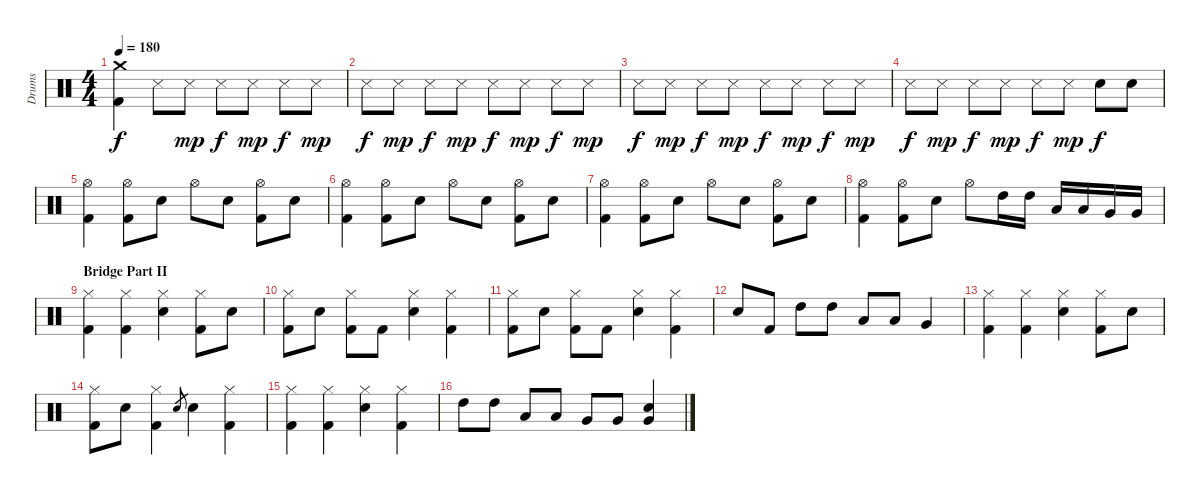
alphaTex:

\track ("Drums" "Drums") {instrument percussion}
\staff {score}
\articulation defaults
\ts (4 4)
\tempo 180
\clef neutral
\ks c
("Crash medium (hit)" "Kick (hit) 2").4{dy f} "Snare (side stick) 3".8 "Snare (side stick) 3".8{dy mp} "Snare (side stick) 3".8{dy f} "Snare (side stick) 3".8{dy mp} "Snare (side stick) 3".8{dy f} "Snare (side stick) 3".8{dy mp} |
"Snare (side stick) 3".8{dy f} "Snare (side stick) 3".8{dy mp} "Snare (side stick) 3".8{dy f} "Snare (side stick) 3".8{dy mp} "Snare (side stick) 3".8{dy f} "Snare (side stick) 3".8{dy mp} "Snare (side stick) 3".8{dy f} "Snare (side stick) 3".8{dy mp} |
"Snare (side stick) 3".8{dy f} "Snare (side stick) 3".8{dy mp} "Snare (side stick) 3".8{dy f} "Snare (side stick) 3".8{dy mp} "Snare (side stick) 3".8{dy f} "Snare (side stick) 3".8{dy mp} "Snare (side stick) 3".8{dy f} "Snare (side stick) 3".8{dy mp} |
"Snare (side stick) 3".8{dy f} "Snare (side stick) 3".8{dy mp} "Snare (side stick) 3".8{dy f} "Snare (side stick) 3".8{dy mp} "Snare (side stick) 3".8{dy f} "Snare (side stick) 3".8{dy mp} "Electric Snare (hit)".8{dy f} "Electric Snare (hit)".8 |
("Hi-Hat (open)" "Kick (hit) 2").4 ("Hi-Hat (open)" "Kick (hit) 2").8 "Electric Snare (hit)".8 "Hi-Hat (open)".8 "Electric Snare (hit)".8 ("Hi-Hat (open)" "Kick (hit) 2").8 "Electric Snare (hit)".8 |
("Hi-Hat (open)" "Kick (hit) 2").4 ("Hi-Hat (open)" "Kick (hit) 2").8 "Electric Snare (hit)".8 "Hi-Hat (open)".8 "Electric Snare (hit)".8 ("Hi-Hat (open)" "Kick (hit) 2").8 "Electric Snare (hit)".8 |
("Hi-Hat (open)" "Kick (hit) 2").4 ("Hi-Hat (open)" "Kick (hit) 2").8 "Electric Snare (hit)".8 "Hi-Hat (open)".8 "Electric Snare (hit)".8 ("Hi-Hat (open)" "Kick (hit) 2").8 "Electric Snare (hit)".8 |
("Hi-Hat (open)" "Kick (hit) 2").4 ("Hi-Hat (open)" "Kick (hit) 2").8 "Electric Snare (hit)".8 "Hi-Hat (open)".8 "High Tom (hit)".16 "High Tom (hit)".16 "Low Tom (hit)".16 "Low Tom (hit)".16 "Very Low Tom (hit)".16 "Very Low Tom (hit)".16 |
\section ("" "Bridge Part II")
("Hi-Hat (closed)" "Kick (hit) 2").4 ("Hi-Hat (closed)" "Kick (hit) 2").4 ("Hi-Hat (closed)" "Electric Snare (hit)").4 ("Hi-Hat (closed)" "Kick (hit) 2").8 "Electric Snare (hit)".8 |
("Hi-Hat (closed)" "Kick (hit) 2").8 "Electric Snare (hit)".8 ("Hi-Hat (closed)" "Kick (hit) 2").8 "Kick (hit) 2".8 ("Hi-Hat (closed)" "Electric Snare (hit)").4 ("Hi-Hat (closed)" "Kick (hit) 2").4 |
("Hi-Hat (closed)" "Kick (hit) 2").8 "Electric Snare (hit)".8 ("Hi-Hat (closed)" "Kick (hit) 2").8 "Kick (hit) 2".8 ("Hi-Hat (closed)" "Electric Snare (hit)").4 ("Hi-Hat (closed)" "Kick (hit) 2").4 |
"Electric Snare (hit)".8 "Kick (hit) 2".8 "High Tom (hit)".8 "High Tom (hit)".8 "Low Tom (hit)".8 "Low Tom (hit)".8 "Very Low Tom (hit)".4 |
("Hi-Hat (closed)" "Kick (hit) 2").4 ("Hi-Hat (closed)" "Kick (hit) 2").4 ("Hi-Hat (closed)" "Electric Snare (hit)").4 ("Hi-Hat (closed)" "Kick (hit) 2").8 "Electric Snare (hit)".8 |
("Hi-Hat (closed)" "Kick (hit) 2").8 "Electric Snare (hit)".8 ("Hi-Hat (closed)" "Kick (hit) 2").4 "Electric Snare (hit)".8{gr} "Electric Snare (hit)".4 ("Hi-Hat (closed)" "Kick (hit) 2").4 |
("Hi-Hat (closed)" "Kick (hit) 2").4 ("Hi-Hat (closed)" "Kick (hit) 2").4 ("Hi-Hat (closed)" "Electric Snare (hit)").4 ("Hi-Hat (closed)" "Kick (hit) 2").4 |
"High Tom (hit)".8 "High Tom (hit)".8 "Low Tom (hit)".8 "Low Tom (hit)".8 "Very Low Tom (hit)".8 "Very Low Tom (hit)".8 ("Electric Snare (hit)" "Very Low Tom (hit)").4
